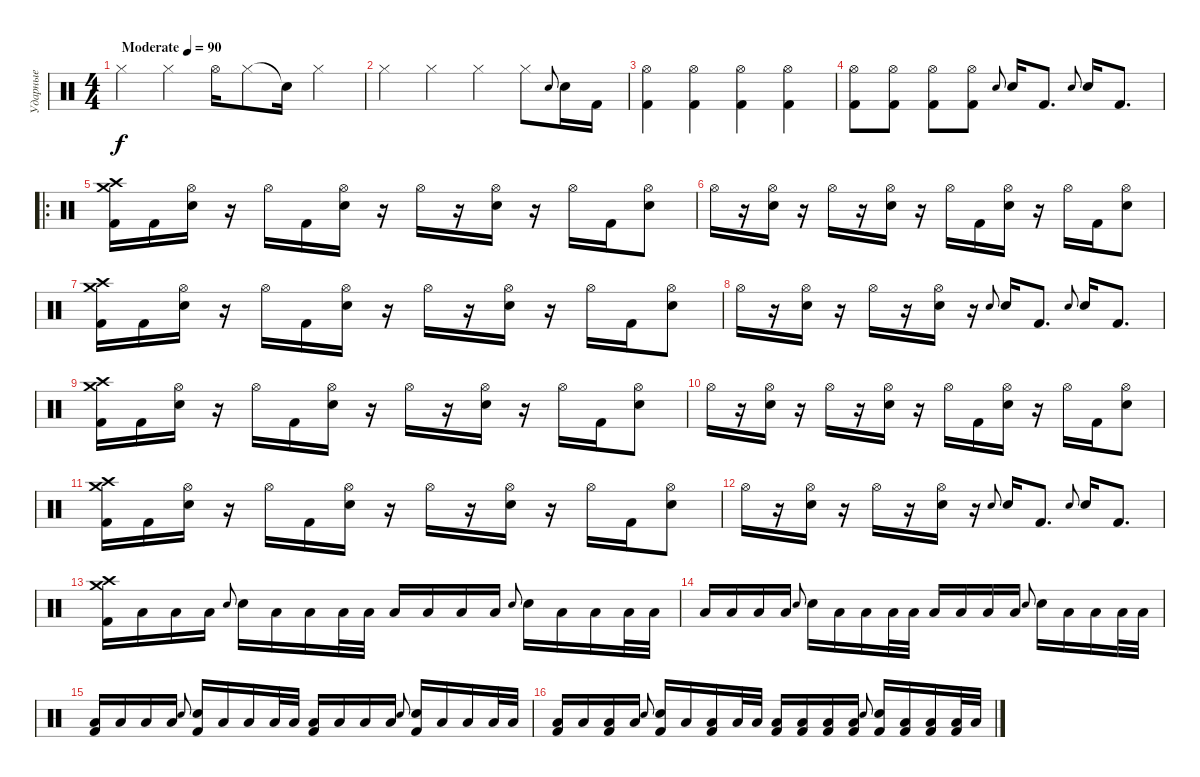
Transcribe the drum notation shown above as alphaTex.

\track ("Ударные" "Ударные") {instrument percussion}
\staff {score}
\articulation defaults
\ts (4 4)
\tempo (90 "Moderate")
\clef neutral
\ks c "Hi-Hat (closed)".4{dy f} "Hi-Hat (closed)".4 "Hi-Hat (open)".16 "Hi-Hat (closed)".8 "Snare (hit)"{t}.16 "Hi-Hat (closed)".4
|
"Hi-Hat (closed)".4 "Hi-Hat (closed)".4 "Hi-Hat (closed)".4 "Hi-Hat (closed)".8 "Electric Snare (hit)".8{gr onbeat} "Electric Snare (hit)".16 "Kick (hit) 2".16 |
("Hi-Hat (open)" "Kick (hit) 2").4 ("Hi-Hat (open)" "Kick (hit) 2").4 ("Hi-Hat (open)" "Kick (hit) 2").4 ("Hi-Hat (open)" "Kick (hit) 2").4 |
("Hi-Hat (open)" "Kick (hit) 2").8 ("Hi-Hat (open)" "Kick (hit) 2").8 ("Hi-Hat (open)" "Kick (hit) 2").8 ("Hi-Hat (open)" "Kick (hit) 2").8 "Electric Snare (hit)".8{gr onbeat} "Electric Snare (hit)".16 "Kick (hit) 2".8{d} "Electric Snare (hit)".8{gr onbeat} "Electric Snare (hit)".16 "Kick (hit) 2".8{d} |
\ro
("Crash medium (hit)" "Crash high (hit)" "Kick (hit) 2").16 "Kick (hit) 2".16 ("Hi-Hat (open)" "Electric Snare (hit)").16 r.16 "Hi-Hat (open)".16 "Kick (hit) 2".16 ("Hi-Hat (open)" "Electric Snare (hit)").16 r.16 "Hi-Hat (open)".16 r.16 ("Hi-Hat (open)" "Electric Snare (hit)").16 r.16 "Hi-Hat (open)".16 "Kick (hit) 2".16 ("Hi-Hat (open)" "Electric Snare (hit)").8 |
"Hi-Hat (open)".16 r.16 ("Hi-Hat (open)" "Electric Snare (hit)").16 r.16 "Hi-Hat (open)".16 r.16 ("Hi-Hat (open)" "Electric Snare (hit)").16 r.16 "Hi-Hat (open)".16 "Kick (hit) 2".16 ("Hi-Hat (open)" "Electric Snare (hit)").16 r.16 "Hi-Hat (open)".16 "Kick (hit) 2".16 ("Hi-Hat (open)" "Electric Snare (hit)").8 |
("Crash medium (hit)" "Crash high (hit)" "Kick (hit) 2").16 "Kick (hit) 2".16 ("Hi-Hat (open)" "Electric Snare (hit)").16 r.16 "Hi-Hat (open)".16 "Kick (hit) 2".16 ("Hi-Hat (open)" "Electric Snare (hit)").16 r.16 "Hi-Hat (open)".16 r.16 ("Hi-Hat (open)" "Electric Snare (hit)").16 r.16 "Hi-Hat (open)".16 "Kick (hit) 2".16 ("Hi-Hat (open)" "Electric Snare (hit)").8 |
"Hi-Hat (open)".16 r.16 ("Hi-Hat (open)" "Electric Snare (hit)").16 r.16 "Hi-Hat (open)".16 r.16 ("Hi-Hat (open)" "Electric Snare (hit)").16 r.16 "Electric Snare (hit)".8{gr onbeat} "Electric Snare (hit)".16 "Kick (hit) 2".8{d} "Electric Snare (hit)".8{gr onbeat} "Electric Snare (hit)".16 "Kick (hit) 2".8{d} |
("Crash medium (hit)" "Crash high (hit)" "Kick (hit) 2").16 "Kick (hit) 2".16 ("Hi-Hat (open)" "Electric Snare (hit)").16 r.16 "Hi-Hat (open)".16 "Kick (hit) 2".16 ("Hi-Hat (open)" "Electric Snare (hit)").16 r.16 "Hi-Hat (open)".16 r.16 ("Hi-Hat (open)" "Electric Snare (hit)").16 r.16 "Hi-Hat (open)".16 "Kick (hit) 2".16 ("Hi-Hat (open)" "Electric Snare (hit)").8 |
"Hi-Hat (open)".16 r.16 ("Hi-Hat (open)" "Electric Snare (hit)").16 r.16 "Hi-Hat (open)".16 r.16 ("Hi-Hat (open)" "Electric Snare (hit)").16 r.16 "Hi-Hat (open)".16 "Kick (hit) 2".16 ("Hi-Hat (open)" "Electric Snare (hit)").16 r.16 "Hi-Hat (open)".16 "Kick (hit) 2".16 ("Hi-Hat (open)" "Electric Snare (hit)").8 |
("Crash medium (hit)" "Crash high (hit)" "Kick (hit) 2").16 "Kick (hit) 2".16 ("Hi-Hat (open)" "Electric Snare (hit)").16 r.16 "Hi-Hat (open)".16 "Kick (hit) 2".16 ("Hi-Hat (open)" "Electric Snare (hit)").16 r.16 "Hi-Hat (open)".16 r.16 ("Hi-Hat (open)" "Electric Snare (hit)").16 r.16 "Hi-Hat (open)".16 "Kick (hit) 2".16 ("Hi-Hat (open)" "Electric Snare (hit)").8 |
"Hi-Hat (open)".16 r.16 ("Hi-Hat (open)" "Electric Snare (hit)").16 r.16 "Hi-Hat (open)".16 r.16 ("Hi-Hat (open)" "Electric Snare (hit)").16 r.16 "Electric Snare (hit)".8{gr onbeat} "Electric Snare (hit)".16 "Kick (hit) 2".8{d} "Electric Snare (hit)".8{gr onbeat} "Electric Snare (hit)".16 "Kick (hit) 2".8{d} |
("Crash medium (hit)" "Crash high (hit)" "Kick (hit) 2").16 "Low Floor Tom (hit)".16 "Low Floor Tom (hit)".16 "Low Floor Tom (hit)".16 "Electric Snare (hit)".8{gr onbeat} "Electric Snare (hit)".16 "Low Floor Tom (hit)".16 "Low Floor Tom (hit)".16 "Low Floor Tom (hit)".32 "Low Floor Tom (hit)".32 "Low Floor Tom (hit)".16 "Low Floor Tom (hit)".16 "Low Floor Tom (hit)".16 "Low Floor Tom (hit)".16 "Electric Snare (hit)".8{gr onbeat} "Electric Snare (hit)".16 "Low Floor Tom (hit)".16 "Low Floor Tom (hit)".16 "Low Floor Tom (hit)".32 "Low Floor Tom (hit)".32 |
"Low Floor Tom (hit)".16 "Low Floor Tom (hit)".16 "Low Floor Tom (hit)".16 "Low Floor Tom (hit)".16 "Electric Snare (hit)".8{gr onbeat} "Electric Snare (hit)".16 "Low Floor Tom (hit)".16 "Low Floor Tom (hit)".16 "Low Floor Tom (hit)".32 "Low Floor Tom (hit)".32 "Low Floor Tom (hit)".16 "Low Floor Tom (hit)".16 "Low Floor Tom (hit)".16 "Low Floor Tom (hit)".16 "Electric Snare (hit)".8{gr onbeat} "Electric Snare (hit)".16 "Low Floor Tom (hit)".16 "Low Floor Tom (hit)".16 "Low Floor Tom (hit)".32 "Low Floor Tom (hit)".32 |
("Low Floor Tom (hit)" "Kick (hit) 2").16 "Low Floor Tom (hit)".16 "Low Floor Tom (hit)".16 "Low Floor Tom (hit)".16 "Electric Snare (hit)".8{gr onbeat} ("Electric Snare (hit)" "Kick (hit) 2").16 "Low Floor Tom (hit)".16 "Low Floor Tom (hit)".16 "Low Floor Tom (hit)".32 "Low Floor Tom (hit)".32 ("Low Floor Tom (hit)" "Kick (hit) 2").16 "Low Floor Tom (hit)".16 "Low Floor Tom (hit)".16 "Low Floor Tom (hit)".16 "Electric Snare (hit)".8{gr onbeat} ("Electric Snare (hit)" "Kick (hit) 2").16 "Low Floor Tom (hit)".16 "Low Floor Tom (hit)".16 "Low Floor Tom (hit)".32 "Low Floor Tom (hit)".32 |
("Low Floor Tom (hit)" "Kick (hit) 2").16 "Low Floor Tom (hit)".16 ("Low Floor Tom (hit)" "Kick (hit) 2").16 "Low Floor Tom (hit)".16 "Electric Snare (hit)".8{gr onbeat} ("Electric Snare (hit)" "Kick (hit) 2").16 "Low Floor Tom (hit)".16 ("Low Floor Tom (hit)" "Kick (hit) 2").16 "Low Floor Tom (hit)".32 "Low Floor Tom (hit)".32 ("Low Floor Tom (hit)" "Kick (hit) 2").16 ("Low Floor Tom (hit)" "Kick (hit) 2").16 ("Low Floor Tom (hit)" "Kick (hit) 2").16 ("Low Floor Tom (hit)" "Kick (hit) 2").16 "Electric Snare (hit)".8{gr onbeat} ("Electric Snare (hit)" "Kick (hit) 2").16 ("Low Floor Tom (hit)" "Kick (hit) 2").16 ("Low Floor Tom (hit)" "Kick (hit) 2").16 ("Low Floor Tom (hit)" "Kick (hit) 2").32 "Low Floor Tom (hit)".32
